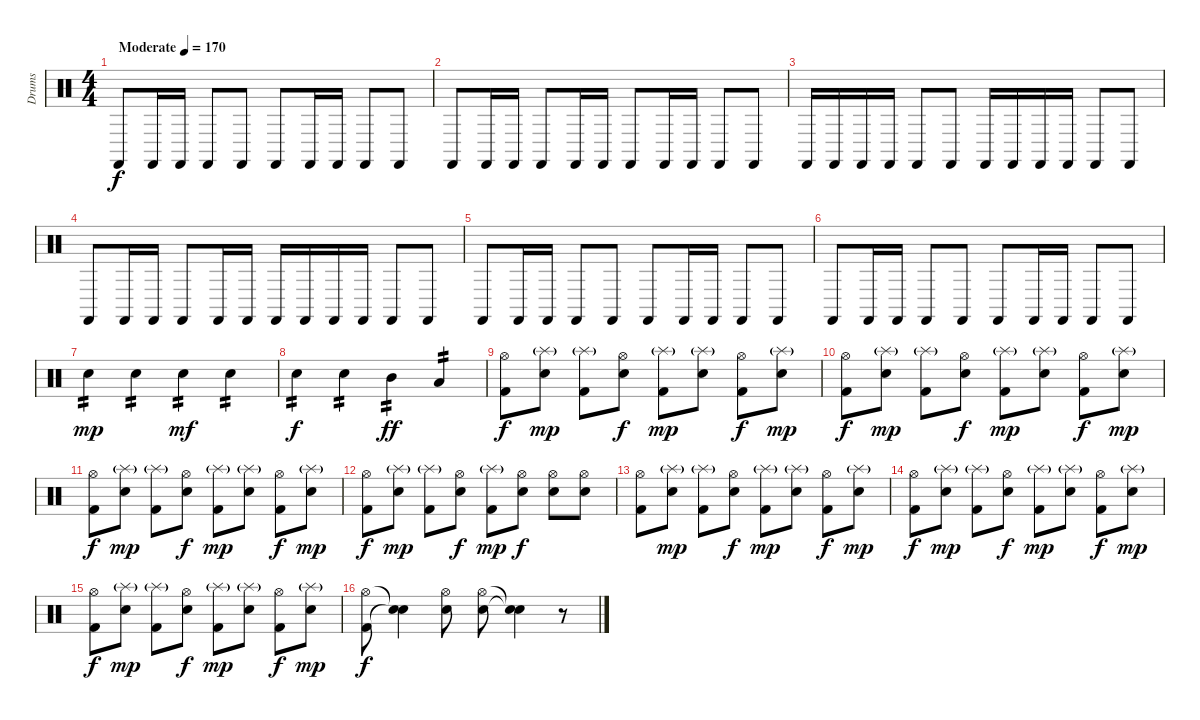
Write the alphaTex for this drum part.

\track ("Drums" "Drums") {instrument percussion}
\staff {score}
\articulation defaults
\ts (4 4)
\tempo (170 "Moderate")
\clef neutral
\ks c "Castanets (hit)".8{dy f} "Castanets (hit)".16 "Castanets (hit)".16 "Castanets (hit)".8 "Castanets (hit)".8 "Castanets (hit)".8 "Castanets (hit)".16 "Castanets (hit)".16 "Castanets (hit)".8 "Castanets (hit)".8
|
"Castanets (hit)".8 "Castanets (hit)".16 "Castanets (hit)".16 "Castanets (hit)".8 "Castanets (hit)".16 "Castanets (hit)".16 "Castanets (hit)".8 "Castanets (hit)".16 "Castanets (hit)".16 "Castanets (hit)".8 "Castanets (hit)".8 |
"Castanets (hit)".16 "Castanets (hit)".16 "Castanets (hit)".16 "Castanets (hit)".16 "Castanets (hit)".8 "Castanets (hit)".8 "Castanets (hit)".16 "Castanets (hit)".16 "Castanets (hit)".16 "Castanets (hit)".16 "Castanets (hit)".8 "Castanets (hit)".8 |
"Castanets (hit)".8 "Castanets (hit)".16 "Castanets (hit)".16 "Castanets (hit)".8 "Castanets (hit)".16 "Castanets (hit)".16 "Castanets (hit)".16 "Castanets (hit)".16 "Castanets (hit)".16 "Castanets (hit)".16 "Castanets (hit)".8 "Castanets (hit)".8 |
"Castanets (hit)".8 "Castanets (hit)".16 "Castanets (hit)".16 "Castanets (hit)".8 "Castanets (hit)".8 "Castanets (hit)".8 "Castanets (hit)".16 "Castanets (hit)".16 "Castanets (hit)".8 "Castanets (hit)".8 |
"Castanets (hit)".8 "Castanets (hit)".16 "Castanets (hit)".16 "Castanets (hit)".8 "Castanets (hit)".8 "Castanets (hit)".8 "Castanets (hit)".16 "Castanets (hit)".16 "Castanets (hit)".8 "Castanets (hit)".8 |
"Electric Snare (hit)".4{tp 2 dy mp} "Electric Snare (hit)".4{tp 2} "Electric Snare (hit)".4{tp 2 dy mf} "Electric Snare (hit)".4{tp 2} |
"Electric Snare (hit)".4{tp 2 dy f} "Electric Snare (hit)".4{tp 2} "Mid Tom (hit)".4{tp 2 dy ff} "Low Floor Tom (hit)".4{tp 2} |
("Hi-Hat (open)" "Kick (hit) 2").8{dy f} ("Splash (hit)"{g} "Snare (hit) 2").8{dy mp} ("Splash (hit)"{g} "Kick (hit) 2").8 ("Hi-Hat (open)" "Snare (hit) 2").8{dy f} ("Splash (hit)"{g} "Kick (hit) 2").8{dy mp} ("Splash (hit)"{g} "Snare (hit) 2").8 ("Hi-Hat (open)" "Kick (hit) 2").8{dy f} ("Splash (hit)"{g} "Snare (hit) 2").8{dy mp} |
("Hi-Hat (open)" "Kick (hit) 2").8{dy f} ("Splash (hit)"{g} "Snare (hit) 2").8{dy mp} ("Splash (hit)"{g} "Kick (hit) 2").8 ("Hi-Hat (open)" "Snare (hit) 2").8{dy f} ("Splash (hit)"{g} "Kick (hit) 2").8{dy mp} ("Splash (hit)"{g} "Snare (hit) 2").8 ("Hi-Hat (open)" "Kick (hit) 2").8{dy f} ("Splash (hit)"{g} "Snare (hit) 2").8{dy mp} |
("Hi-Hat (open)" "Kick (hit) 2").8{dy f} ("Splash (hit)"{g} "Snare (hit) 2").8{dy mp} ("Splash (hit)"{g} "Kick (hit) 2").8 ("Hi-Hat (open)" "Snare (hit) 2").8{dy f} ("Splash (hit)"{g} "Kick (hit) 2").8{dy mp} ("Splash (hit)"{g} "Snare (hit) 2").8 ("Hi-Hat (open)" "Kick (hit) 2").8{dy f} ("Splash (hit)"{g} "Snare (hit) 2").8{dy mp} |
("Hi-Hat (open)" "Kick (hit) 2").8{dy f} ("Splash (hit)"{g} "Snare (hit) 2").8{dy mp} ("Splash (hit)"{g} "Kick (hit) 2").8 ("Hi-Hat (open)" "Snare (hit) 2").8{dy f} ("Splash (hit)"{g} "Kick (hit) 2").8{dy mp} ("Hi-Hat (open)" "Snare (hit) 2").8{dy f} ("Hi-Hat (open)" "Snare (hit) 2").8 ("Hi-Hat (open)" "Snare (hit) 2").8 |
("Hi-Hat (open)" "Kick (hit) 2").8 ("Splash (hit)"{g} "Snare (hit) 2").8{dy mp} ("Splash (hit)"{g} "Kick (hit) 2").8 ("Hi-Hat (open)" "Snare (hit) 2").8{dy f} ("Splash (hit)"{g} "Kick (hit) 2").8{dy mp} ("Splash (hit)"{g} "Snare (hit) 2").8 ("Hi-Hat (open)" "Kick (hit) 2").8{dy f} ("Splash (hit)"{g} "Snare (hit) 2").8{dy mp} |
("Hi-Hat (open)" "Kick (hit) 2").8{dy f} ("Splash (hit)"{g} "Snare (hit) 2").8{dy mp} ("Splash (hit)"{g} "Kick (hit) 2").8 ("Hi-Hat (open)" "Snare (hit) 2").8{dy f} ("Splash (hit)"{g} "Kick (hit) 2").8{dy mp} ("Splash (hit)"{g} "Snare (hit) 2").8 ("Hi-Hat (open)" "Kick (hit) 2").8{dy f} ("Splash (hit)"{g} "Snare (hit) 2").8{dy mp} |
("Hi-Hat (open)" "Kick (hit) 2").8{dy f} ("Splash (hit)"{g} "Snare (hit) 2").8{dy mp} ("Splash (hit)"{g} "Kick (hit) 2").8 ("Hi-Hat (open)" "Snare (hit) 2").8{dy f} ("Splash (hit)"{g} "Kick (hit) 2").8{dy mp} ("Splash (hit)"{g} "Snare (hit) 2").8 ("Hi-Hat (open)" "Kick (hit) 2").8{dy f} ("Splash (hit)"{g} "Snare (hit) 2").8{dy mp} |
("Hi-Hat (open)" "Kick (hit) 2").8{dy f} ("Snare (hit)"{t} "Snare (hit)"{t}).4 ("Hi-Hat (open)" "Snare (hit) 2").8 ("Hi-Hat (open)" "Snare (hit) 2").8 ("Snare (hit)"{t} "Snare (hit)"{t}).4 r.8
